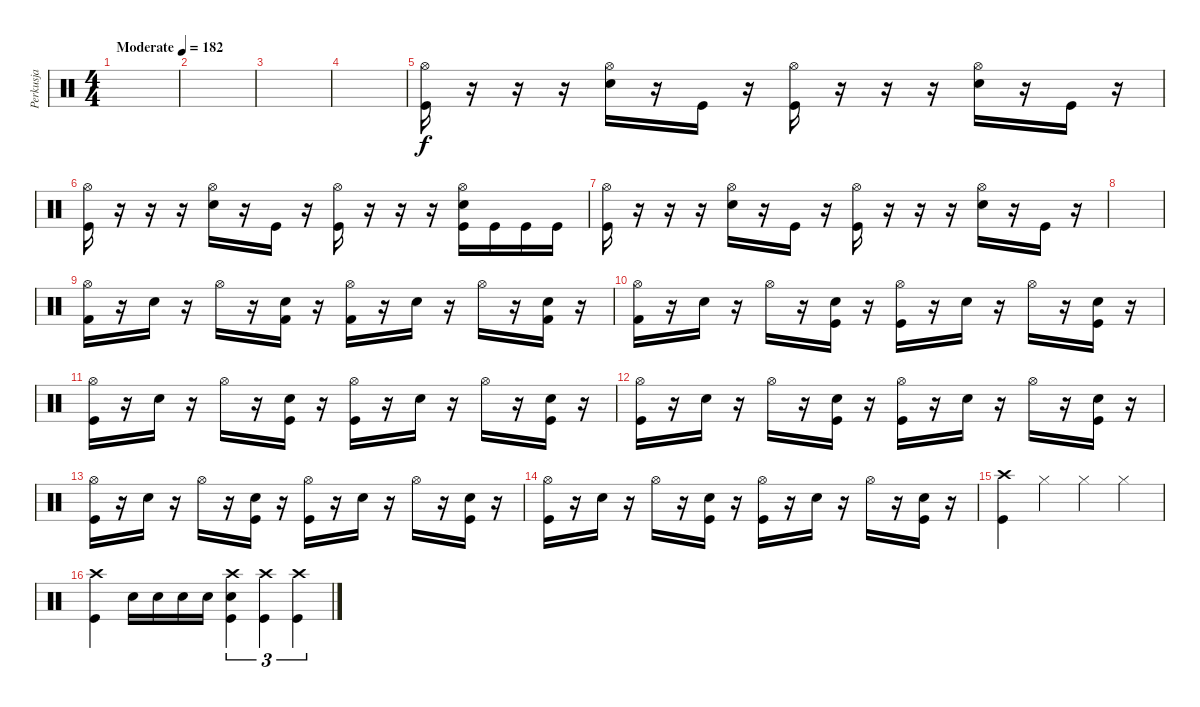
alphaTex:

\track ("Perkusja" "Perkusja") {instrument percussion}
\staff {score}
\articulation defaults
\ts (4 4)
\tempo (182 "Moderate")
\clef neutral
\ks c
|
|
|
|
("Hi-Hat (open)" "Kick (hit)").16 r.16 r.16 r.16 ("Hi-Hat (open)" "Snare (hit) 2").16 r.16 "Kick (hit)".16 r.16 ("Hi-Hat (open)" "Kick (hit)").16 r.16 r.16 r.16 ("Hi-Hat (open)" "Snare (hit) 2").16 r.16 "Kick (hit)".16 r.16 |
("Hi-Hat (open)" "Kick (hit)").16 r.16 r.16 r.16 ("Hi-Hat (open)" "Snare (hit) 2").16 r.16 "Kick (hit)".16 r.16 ("Hi-Hat (open)" "Kick (hit)").16 r.16 r.16 r.16 ("Hi-Hat (open)" "Snare (hit) 2" "Kick (hit)").16 "Kick (hit)".16 "Kick (hit)".16 "Kick (hit)".16 |
("Hi-Hat (open)" "Kick (hit)").16 r.16 r.16 r.16 ("Hi-Hat (open)" "Snare (hit) 2").16 r.16 "Kick (hit)".16 r.16 ("Hi-Hat (open)" "Kick (hit)").16 r.16 r.16 r.16 ("Hi-Hat (open)" "Snare (hit) 2").16 r.16 "Kick (hit)".16 r.16 |
|
("Hi-Hat (open)" "Kick (hit) 2").16 r.16 "Snare (hit) 2".16 r.16 "Hi-Hat (open)".16 r.16 ("Snare (hit) 2" "Kick (hit) 2").16 r.16 ("Hi-Hat (open)" "Kick (hit) 2").16 r.16 "Snare (hit) 2".16 r.16 "Hi-Hat (open)".16 r.16 ("Snare (hit) 2" "Kick (hit) 2").16 r.16 |
("Hi-Hat (open)" "Kick (hit) 2").16 r.16 "Snare (hit) 2".16 r.16 "Hi-Hat (open)".16 r.16 ("Snare (hit) 2" "Kick (hit)").16 r.16 ("Hi-Hat (open)" "Kick (hit)").16 r.16 "Snare (hit) 2".16 r.16 "Hi-Hat (open)".16 r.16 ("Snare (hit) 2" "Kick (hit)").16 r.16 |
("Hi-Hat (open)" "Kick (hit)").16 r.16 "Snare (hit) 2".16 r.16 "Hi-Hat (open)".16 r.16 ("Snare (hit) 2" "Kick (hit)").16 r.16 ("Hi-Hat (open)" "Kick (hit)").16 r.16 "Snare (hit) 2".16 r.16 "Hi-Hat (open)".16 r.16 ("Snare (hit) 2" "Kick (hit)").16 r.16 |
("Hi-Hat (open)" "Kick (hit)").16 r.16 "Snare (hit) 2".16 r.16 "Hi-Hat (open)".16 r.16 ("Snare (hit) 2" "Kick (hit)").16 r.16 ("Hi-Hat (open)" "Kick (hit)").16 r.16 "Snare (hit) 2".16 r.16 "Hi-Hat (open)".16 r.16 ("Snare (hit) 2" "Kick (hit)").16 r.16 |
("Hi-Hat (open)" "Kick (hit)").16 r.16 "Snare (hit) 2".16 r.16 "Hi-Hat (open)".16 r.16 ("Snare (hit) 2" "Kick (hit)").16 r.16 ("Hi-Hat (open)" "Kick (hit)").16 r.16 "Snare (hit) 2".16 r.16 "Hi-Hat (open)".16 r.16 ("Snare (hit) 2" "Kick (hit)").16 r.16 |
("Hi-Hat (open)" "Kick (hit)").16 r.16 "Snare (hit) 2".16 r.16 "Hi-Hat (open)".16 r.16 ("Snare (hit) 2" "Kick (hit)").16 r.16 ("Hi-Hat (open)" "Kick (hit)").16 r.16 "Snare (hit) 2".16 r.16 "Hi-Hat (open)".16 r.16 ("Snare (hit) 2" "Kick (hit)").16 r.16 |
("Crash high (hit)" "Kick (hit)").4 "Hi-Hat (closed)".4 "Hi-Hat (closed)".4 "Hi-Hat (closed)".4 |
("Crash high (hit)" "Kick (hit)").4 "Snare (hit) 2".16 "Snare (hit) 2".16 "Snare (hit) 2".16 "Snare (hit) 2".16 ("Crash high (hit)" "Snare (hit) 2" "Kick (hit)").4{tu (3 2)} ("Crash high (hit)" "Kick (hit)").4{tu (3 2)} ("Crash high (hit)" "Kick (hit)").4{tu (3 2)}
